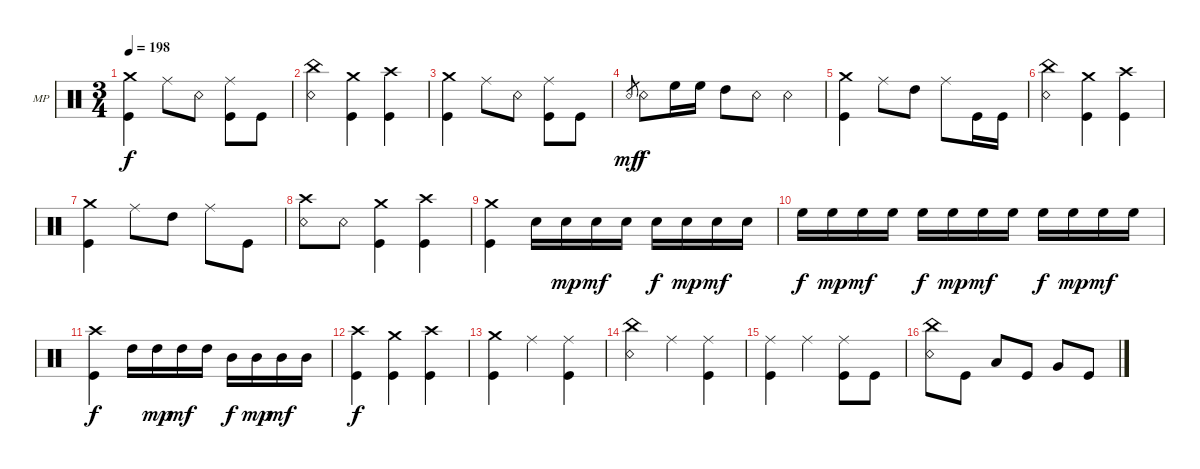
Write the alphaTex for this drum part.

\defaultSystemsLayout 4
\bracketExtendMode groupsimilarinstruments
\firstSystemTrackNameOrientation horizontal
\otherSystemsTrackNameOrientation horizontal
\track ("Mike Portnoy" "MP") {instrument percussion}
\staff {score}
\articulation defaults
\ts (3 4)
\tempo 198
\clef neutral
\ks c
("Crash medium (hit)" "Kick (hit)").4{dy f} "Ride (middle)".8 "Snare (rim shot)".8 ("Ride (middle)" "Kick (hit)").8 "Kick (hit)".8 |
("China (hit)" "Snare (rim shot)").4 ("Crash medium (hit)" "Kick (hit)").4 ("Crash high (hit)" "Kick (hit)").4 |
("Crash medium (hit)" "Kick (hit)").4 "Ride (middle)".8 "Snare (rim shot)".8 ("Ride (middle)" "Kick (hit)").8 "Kick (hit)".8 |
"Snare (rim shot)".8{gr dy mf} "Snare (rim shot)".8{dy f} "High Floor Tom (hit)".16 "High Floor Tom (hit)".16 "High Tom (hit)".8 "Snare (rim shot)".8 "Snare (rim shot)".4 |
("Crash medium (hit)" "Kick (hit)").4 "Ride (middle)".8 "High Tom (hit)".8 "Ride (middle)".8 "Kick (hit)".16 "Kick (hit)".16 |
("China (hit)" "Snare (rim shot)").4 ("Crash medium (hit)" "Kick (hit)").4 ("Crash high (hit)" "Kick (hit)").4 |
("Crash medium (hit)" "Kick (hit)").4 "Ride (middle)".8 "High Tom (hit)".8 "Ride (middle)".8 "Kick (hit)".8 |
("Crash high (hit)" "Snare (rim shot)").8 "Snare (rim shot)".8 ("Crash medium (hit)" "Kick (hit)").4 ("Crash high (hit)" "Kick (hit)").4 |
("Crash medium (hit)" "Kick (hit)").4 "Snare (hit) 2".16 "Snare (hit) 2".16{dy mp} "Snare (hit) 2".16{dy mf} "Snare (hit) 2".16 "Snare (hit) 2".16{dy f} "Snare (hit) 2".16{dy mp} "Snare (hit) 2".16{dy mf} "Snare (hit) 2".16 |
"High Floor Tom (hit)".16{dy f} "High Floor Tom (hit)".16{dy mp} "High Floor Tom (hit)".16{dy mf} "High Floor Tom (hit)".16 "High Floor Tom (hit)".16{dy f} "High Floor Tom (hit)".16{dy mp} "High Floor Tom (hit)".16{dy mf} "High Floor Tom (hit)".16 "High Floor Tom (hit)".16{dy f} "High Floor Tom (hit)".16{dy mp} "High Floor Tom (hit)".16{dy mf} "High Floor Tom (hit)".16 |
("Crash high (hit)" "Kick (hit)").4{dy f} "High Tom (hit)".16 "High Tom (hit)".16{dy mp} "High Tom (hit)".16{dy mf} "High Tom (hit)".16 "Mid Tom (hit)".16{dy f} "Mid Tom (hit)".16{dy mp} "Mid Tom (hit)".16{dy mf} "Mid Tom (hit)".16 |
("Crash high (hit)" "Kick (hit)").4{dy f} ("Crash medium (hit)" "Kick (hit)").4 ("Crash high (hit)" "Kick (hit)").4 |
("Crash medium (hit)" "Kick (hit)").4 "Ride (middle)".4 ("Ride (middle)" "Kick (hit)").4 |
("China (hit)" "Snare (rim shot)").4 "Ride (middle)".4 ("Ride (middle)" "Kick (hit)").4 |
("Ride (middle)" "Kick (hit)").4 "Ride (middle)".4 ("Ride (middle)" "Kick (hit)").8 "Kick (hit)".8 |
("China (hit)" "Snare (rim shot)").8 "Kick (hit)".8 "Low Tom (hit)".8 "Kick (hit)".8 "Very Low Tom (hit)".8 "Kick (hit)".8
